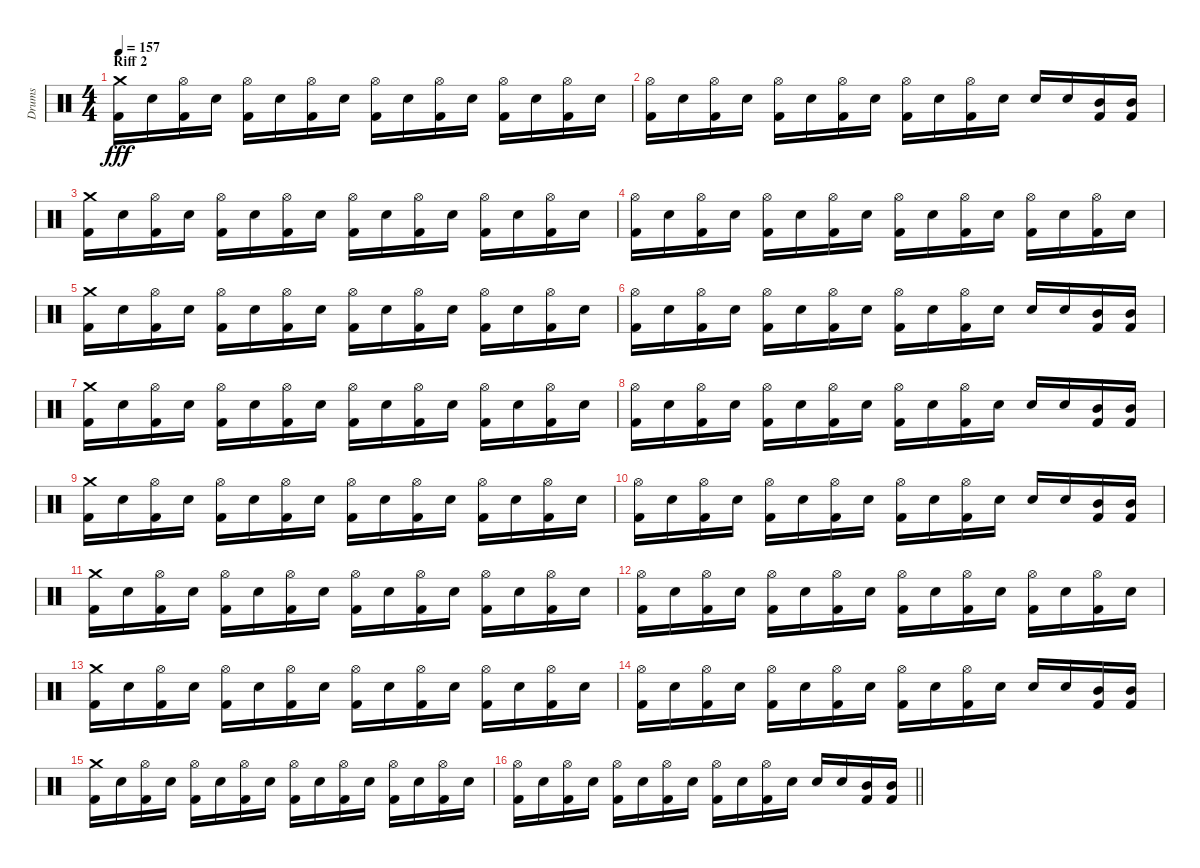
\track ("Drums" "Drums") {instrument percussion}
\staff {score}
\articulation defaults
\ts (4 4)
\section ("" "Riff 2")
\tempo 157
\clef neutral
\ks c
("Kick (hit) 2" "Crash medium (hit)").16{dy fff} "Snare (hit) 2".16 ("Kick (hit) 2" "Hi-Hat (open)").16 "Snare (hit) 2".16 ("Kick (hit) 2" "Hi-Hat (open)").16 "Snare (hit) 2".16 ("Kick (hit) 2" "Hi-Hat (open)").16 "Snare (hit) 2".16 ("Kick (hit) 2" "Hi-Hat (open)").16 "Snare (hit) 2".16 ("Kick (hit) 2" "Hi-Hat (open)").16 "Snare (hit) 2".16 ("Kick (hit) 2" "Hi-Hat (open)").16 "Snare (hit) 2".16 ("Kick (hit) 2" "Hi-Hat (open)").16 "Snare (hit) 2".16 |
("Kick (hit) 2" "Hi-Hat (open)").16 "Snare (hit) 2".16 ("Kick (hit) 2" "Hi-Hat (open)").16 "Snare (hit) 2".16 ("Kick (hit) 2" "Hi-Hat (open)").16 "Snare (hit) 2".16 ("Kick (hit) 2" "Hi-Hat (open)").16 "Snare (hit) 2".16 ("Kick (hit) 2" "Hi-Hat (open)").16 "Snare (hit) 2".16 ("Kick (hit) 2" "Hi-Hat (open)").16 "Snare (hit) 2".16 "Snare (hit) 2".16 "Snare (hit) 2".16 ("Kick (hit) 2" "Mid Tom (hit)").16 ("Kick (hit) 2" "Mid Tom (hit)").16 |
("Kick (hit) 2" "Crash medium (hit)").16 "Snare (hit) 2".16 ("Kick (hit) 2" "Hi-Hat (open)").16 "Snare (hit) 2".16 ("Kick (hit) 2" "Hi-Hat (open)").16 "Snare (hit) 2".16 ("Kick (hit) 2" "Hi-Hat (open)").16 "Snare (hit) 2".16 ("Kick (hit) 2" "Hi-Hat (open)").16 "Snare (hit) 2".16 ("Kick (hit) 2" "Hi-Hat (open)").16 "Snare (hit) 2".16 ("Kick (hit) 2" "Hi-Hat (open)").16 "Snare (hit) 2".16 ("Kick (hit) 2" "Hi-Hat (open)").16 "Snare (hit) 2".16 |
("Kick (hit) 2" "Hi-Hat (open)").16 "Snare (hit) 2".16 ("Kick (hit) 2" "Hi-Hat (open)").16 "Snare (hit) 2".16 ("Kick (hit) 2" "Hi-Hat (open)").16 "Snare (hit) 2".16 ("Kick (hit) 2" "Hi-Hat (open)").16 "Snare (hit) 2".16 ("Kick (hit) 2" "Hi-Hat (open)").16 "Snare (hit) 2".16 ("Kick (hit) 2" "Hi-Hat (open)").16 "Snare (hit) 2".16 ("Kick (hit) 2" "Hi-Hat (open)").16 "Snare (hit) 2".16 ("Kick (hit) 2" "Hi-Hat (open)").16 "Snare (hit) 2".16 |
("Kick (hit) 2" "Crash medium (hit)").16 "Snare (hit) 2".16 ("Kick (hit) 2" "Hi-Hat (open)").16 "Snare (hit) 2".16 ("Kick (hit) 2" "Hi-Hat (open)").16 "Snare (hit) 2".16 ("Kick (hit) 2" "Hi-Hat (open)").16 "Snare (hit) 2".16 ("Kick (hit) 2" "Hi-Hat (open)").16 "Snare (hit) 2".16 ("Kick (hit) 2" "Hi-Hat (open)").16 "Snare (hit) 2".16 ("Kick (hit) 2" "Hi-Hat (open)").16 "Snare (hit) 2".16 ("Kick (hit) 2" "Hi-Hat (open)").16 "Snare (hit) 2".16 |
("Kick (hit) 2" "Hi-Hat (open)").16 "Snare (hit) 2".16 ("Kick (hit) 2" "Hi-Hat (open)").16 "Snare (hit) 2".16 ("Kick (hit) 2" "Hi-Hat (open)").16 "Snare (hit) 2".16 ("Kick (hit) 2" "Hi-Hat (open)").16 "Snare (hit) 2".16 ("Kick (hit) 2" "Hi-Hat (open)").16 "Snare (hit) 2".16 ("Kick (hit) 2" "Hi-Hat (open)").16 "Snare (hit) 2".16 "Snare (hit) 2".16 "Snare (hit) 2".16 ("Kick (hit) 2" "Mid Tom (hit)").16 ("Kick (hit) 2" "Mid Tom (hit)").16 |
("Kick (hit) 2" "Crash medium (hit)").16 "Snare (hit) 2".16 ("Kick (hit) 2" "Hi-Hat (open)").16 "Snare (hit) 2".16 ("Kick (hit) 2" "Hi-Hat (open)").16 "Snare (hit) 2".16 ("Kick (hit) 2" "Hi-Hat (open)").16 "Snare (hit) 2".16 ("Kick (hit) 2" "Hi-Hat (open)").16 "Snare (hit) 2".16 ("Kick (hit) 2" "Hi-Hat (open)").16 "Snare (hit) 2".16 ("Kick (hit) 2" "Hi-Hat (open)").16 "Snare (hit) 2".16 ("Kick (hit) 2" "Hi-Hat (open)").16 "Snare (hit) 2".16 |
("Kick (hit) 2" "Hi-Hat (open)").16 "Snare (hit) 2".16 ("Kick (hit) 2" "Hi-Hat (open)").16 "Snare (hit) 2".16 ("Kick (hit) 2" "Hi-Hat (open)").16 "Snare (hit) 2".16 ("Kick (hit) 2" "Hi-Hat (open)").16 "Snare (hit) 2".16 ("Kick (hit) 2" "Hi-Hat (open)").16 "Snare (hit) 2".16 ("Kick (hit) 2" "Hi-Hat (open)").16 "Snare (hit) 2".16 "Snare (hit) 2".16 "Snare (hit) 2".16 ("Kick (hit) 2" "Mid Tom (hit)").16 ("Kick (hit) 2" "Mid Tom (hit)").16 |
("Kick (hit) 2" "Crash medium (hit)").16 "Snare (hit) 2".16 ("Kick (hit) 2" "Hi-Hat (open)").16 "Snare (hit) 2".16 ("Kick (hit) 2" "Hi-Hat (open)").16 "Snare (hit) 2".16 ("Kick (hit) 2" "Hi-Hat (open)").16 "Snare (hit) 2".16 ("Kick (hit) 2" "Hi-Hat (open)").16 "Snare (hit) 2".16 ("Kick (hit) 2" "Hi-Hat (open)").16 "Snare (hit) 2".16 ("Kick (hit) 2" "Hi-Hat (open)").16 "Snare (hit) 2".16 ("Kick (hit) 2" "Hi-Hat (open)").16 "Snare (hit) 2".16 |
("Kick (hit) 2" "Hi-Hat (open)").16 "Snare (hit) 2".16 ("Kick (hit) 2" "Hi-Hat (open)").16 "Snare (hit) 2".16 ("Kick (hit) 2" "Hi-Hat (open)").16 "Snare (hit) 2".16 ("Kick (hit) 2" "Hi-Hat (open)").16 "Snare (hit) 2".16 ("Kick (hit) 2" "Hi-Hat (open)").16 "Snare (hit) 2".16 ("Kick (hit) 2" "Hi-Hat (open)").16 "Snare (hit) 2".16 "Snare (hit) 2".16 "Snare (hit) 2".16 ("Kick (hit) 2" "Mid Tom (hit)").16 ("Kick (hit) 2" "Mid Tom (hit)").16 |
("Kick (hit) 2" "Crash medium (hit)").16 "Snare (hit) 2".16 ("Kick (hit) 2" "Hi-Hat (open)").16 "Snare (hit) 2".16 ("Kick (hit) 2" "Hi-Hat (open)").16 "Snare (hit) 2".16 ("Kick (hit) 2" "Hi-Hat (open)").16 "Snare (hit) 2".16 ("Kick (hit) 2" "Hi-Hat (open)").16 "Snare (hit) 2".16 ("Kick (hit) 2" "Hi-Hat (open)").16 "Snare (hit) 2".16 ("Kick (hit) 2" "Hi-Hat (open)").16 "Snare (hit) 2".16 ("Kick (hit) 2" "Hi-Hat (open)").16 "Snare (hit) 2".16 |
("Kick (hit) 2" "Hi-Hat (open)").16 "Snare (hit) 2".16 ("Kick (hit) 2" "Hi-Hat (open)").16 "Snare (hit) 2".16 ("Kick (hit) 2" "Hi-Hat (open)").16 "Snare (hit) 2".16 ("Kick (hit) 2" "Hi-Hat (open)").16 "Snare (hit) 2".16 ("Kick (hit) 2" "Hi-Hat (open)").16 "Snare (hit) 2".16 ("Kick (hit) 2" "Hi-Hat (open)").16 "Snare (hit) 2".16 ("Kick (hit) 2" "Hi-Hat (open)").16 "Snare (hit) 2".16 ("Kick (hit) 2" "Hi-Hat (open)").16 "Snare (hit) 2".16 |
("Kick (hit) 2" "Crash medium (hit)").16 "Snare (hit) 2".16 ("Kick (hit) 2" "Hi-Hat (open)").16 "Snare (hit) 2".16 ("Kick (hit) 2" "Hi-Hat (open)").16 "Snare (hit) 2".16 ("Kick (hit) 2" "Hi-Hat (open)").16 "Snare (hit) 2".16 ("Kick (hit) 2" "Hi-Hat (open)").16 "Snare (hit) 2".16 ("Kick (hit) 2" "Hi-Hat (open)").16 "Snare (hit) 2".16 ("Kick (hit) 2" "Hi-Hat (open)").16 "Snare (hit) 2".16 ("Kick (hit) 2" "Hi-Hat (open)").16 "Snare (hit) 2".16 |
("Kick (hit) 2" "Hi-Hat (open)").16 "Snare (hit) 2".16 ("Kick (hit) 2" "Hi-Hat (open)").16 "Snare (hit) 2".16 ("Kick (hit) 2" "Hi-Hat (open)").16 "Snare (hit) 2".16 ("Kick (hit) 2" "Hi-Hat (open)").16 "Snare (hit) 2".16 ("Kick (hit) 2" "Hi-Hat (open)").16 "Snare (hit) 2".16 ("Kick (hit) 2" "Hi-Hat (open)").16 "Snare (hit) 2".16 "Snare (hit) 2".16 "Snare (hit) 2".16 ("Kick (hit) 2" "Mid Tom (hit)").16 ("Kick (hit) 2" "Mid Tom (hit)").16 |
("Kick (hit) 2" "Crash medium (hit)").16 "Snare (hit) 2".16 ("Kick (hit) 2" "Hi-Hat (open)").16 "Snare (hit) 2".16 ("Kick (hit) 2" "Hi-Hat (open)").16 "Snare (hit) 2".16 ("Kick (hit) 2" "Hi-Hat (open)").16 "Snare (hit) 2".16 ("Kick (hit) 2" "Hi-Hat (open)").16 "Snare (hit) 2".16 ("Kick (hit) 2" "Hi-Hat (open)").16 "Snare (hit) 2".16 ("Kick (hit) 2" "Hi-Hat (open)").16 "Snare (hit) 2".16 ("Kick (hit) 2" "Hi-Hat (open)").16 "Snare (hit) 2".16 |
\barLineRight lightlight
("Kick (hit) 2" "Hi-Hat (open)").16 "Snare (hit) 2".16 ("Kick (hit) 2" "Hi-Hat (open)").16 "Snare (hit) 2".16 ("Kick (hit) 2" "Hi-Hat (open)").16 "Snare (hit) 2".16 ("Kick (hit) 2" "Hi-Hat (open)").16 "Snare (hit) 2".16 ("Kick (hit) 2" "Hi-Hat (open)").16 "Snare (hit) 2".16 ("Kick (hit) 2" "Hi-Hat (open)").16 "Snare (hit) 2".16 "Snare (hit) 2".16 "Snare (hit) 2".16 ("Kick (hit) 2" "Mid Tom (hit)").16 ("Kick (hit) 2" "Mid Tom (hit)").16
